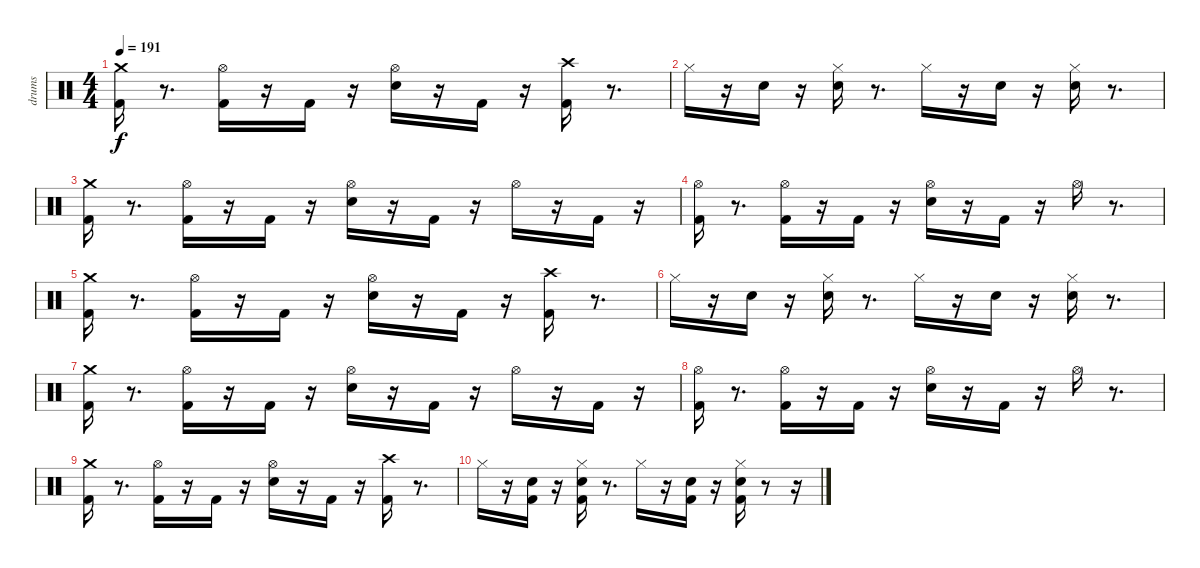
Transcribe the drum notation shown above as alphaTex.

\track ("drums" "drums") {instrument percussion}
\staff {score}
\articulation defaults
\ts (4 4)
\tempo 191
\clef neutral
\ks c
("Kick (hit) 2" "Crash medium (hit)").16{dy f} r.8{d} ("Kick (hit) 2" "Hi-Hat (open)").16 r.16 "Kick (hit) 2".16 r.16 ("Snare (hit) 2" "Hi-Hat (open)").16 r.16 "Kick (hit) 2".16 r.16 ("Kick (hit) 2" "Crash high (hit)").16 r.8{d} |
"Hi-Hat (closed)".16 r.16 "Snare (hit) 2".16 r.16 ("Snare (hit) 2" "Hi-Hat (closed)").16 r.8{d} "Hi-Hat (closed)".16 r.16 "Snare (hit) 2".16 r.16 ("Snare (hit) 2" "Hi-Hat (closed)").16 r.8{d} |
("Kick (hit) 2" "Crash medium (hit)").16 r.8{d} ("Kick (hit) 2" "Hi-Hat (open)").16 r.16 "Kick (hit) 2".16 r.16 ("Snare (hit) 2" "Hi-Hat (open)").16 r.16 "Kick (hit) 2".16 r.16 "Hi-Hat (open)".16 r.16 "Kick (hit) 2".16 r.16 |
("Kick (hit) 2" "Hi-Hat (open)").16 r.8{d} ("Kick (hit) 2" "Hi-Hat (open)").16 r.16 "Kick (hit) 2".16 r.16 ("Snare (hit) 2" "Hi-Hat (open)").16 r.16 "Kick (hit) 2".16 r.16 "Hi-Hat (open)".16 r.8{d} |
("Kick (hit) 2" "Crash medium (hit)").16 r.8{d} ("Kick (hit) 2" "Hi-Hat (open)").16 r.16 "Kick (hit) 2".16 r.16 ("Snare (hit) 2" "Hi-Hat (open)").16 r.16 "Kick (hit) 2".16 r.16 ("Kick (hit) 2" "Crash high (hit)").16 r.8{d} |
"Hi-Hat (closed)".16 r.16 "Snare (hit) 2".16 r.16 ("Snare (hit) 2" "Hi-Hat (closed)").16 r.8{d} "Hi-Hat (closed)".16 r.16 "Snare (hit) 2".16 r.16 ("Snare (hit) 2" "Hi-Hat (closed)").16 r.8{d} |
("Kick (hit) 2" "Crash medium (hit)").16 r.8{d} ("Kick (hit) 2" "Hi-Hat (open)").16 r.16 "Kick (hit) 2".16 r.16 ("Snare (hit) 2" "Hi-Hat (open)").16 r.16 "Kick (hit) 2".16 r.16 "Hi-Hat (open)".16 r.16 "Kick (hit) 2".16 r.16 |
("Kick (hit) 2" "Hi-Hat (open)").16 r.8{d} ("Kick (hit) 2" "Hi-Hat (open)").16 r.16 "Kick (hit) 2".16 r.16 ("Snare (hit) 2" "Hi-Hat (open)").16 r.16 "Kick (hit) 2".16 r.16 "Hi-Hat (open)".16 r.8{d} |
("Kick (hit) 2" "Crash medium (hit)").16 r.8{d} ("Kick (hit) 2" "Hi-Hat (open)").16 r.16 "Kick (hit) 2".16 r.16 ("Snare (hit) 2" "Hi-Hat (open)").16 r.16 "Kick (hit) 2".16 r.16 ("Kick (hit) 2" "Crash high (hit)").16 r.8{d} |
"Hi-Hat (closed)".16 r.16 ("Kick (hit) 2" "Snare (hit) 2").16 r.16 ("Kick (hit) 2" "Snare (hit) 2" "Hi-Hat (closed)").16 r.8{d} "Hi-Hat (closed)".16 r.16 ("Kick (hit) 2" "Snare (hit) 2").16 r.16 ("Kick (hit) 2" "Snare (hit) 2" "Hi-Hat (closed)").16 r.8 r.16
